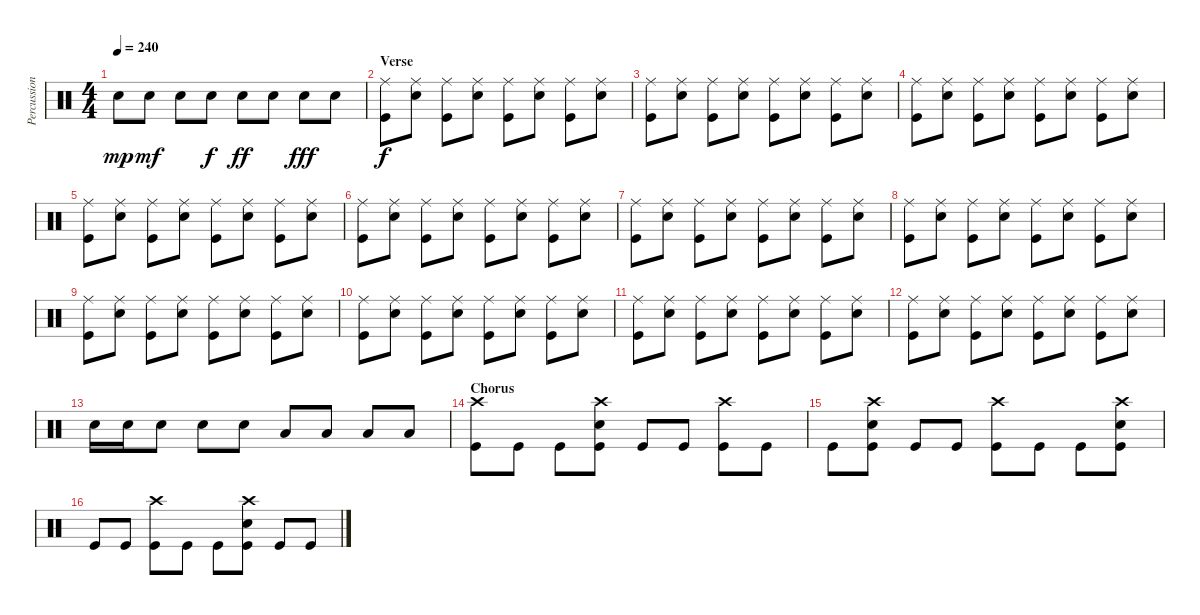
\track ("Percussion" "Percussion") {instrument percussion}
\staff {score}
\articulation defaults
\ts (4 4)
\tempo 240
\clef neutral
\ks c "Electric Snare (hit)".8{dy mp} "Electric Snare (hit)".8{dy mf} "Electric Snare (hit)".8 "Electric Snare (hit)".8{dy f} "Electric Snare (hit)".8{dy ff} "Electric Snare (hit)".8 "Electric Snare (hit)".8{dy fff} "Electric Snare (hit)".8
|
\section ("" "Verse")
("Ride (middle)" "Kick (hit)").8{dy f} ("Electric Snare (hit)" "Ride (middle)").8 ("Ride (middle)" "Kick (hit)").8 ("Electric Snare (hit)" "Ride (middle)").8 ("Ride (middle)" "Kick (hit)").8 ("Electric Snare (hit)" "Ride (middle)").8 ("Ride (middle)" "Kick (hit)").8 ("Electric Snare (hit)" "Ride (middle)").8 |
("Ride (middle)" "Kick (hit)").8 ("Electric Snare (hit)" "Ride (middle)").8 ("Ride (middle)" "Kick (hit)").8 ("Electric Snare (hit)" "Ride (middle)").8 ("Ride (middle)" "Kick (hit)").8 ("Electric Snare (hit)" "Ride (middle)").8 ("Ride (middle)" "Kick (hit)").8 ("Electric Snare (hit)" "Ride (middle)").8 |
("Ride (middle)" "Kick (hit)").8 ("Electric Snare (hit)" "Ride (middle)").8 ("Ride (middle)" "Kick (hit)").8 ("Electric Snare (hit)" "Ride (middle)").8 ("Ride (middle)" "Kick (hit)").8 ("Electric Snare (hit)" "Ride (middle)").8 ("Ride (middle)" "Kick (hit)").8 ("Electric Snare (hit)" "Ride (middle)").8 |
("Ride (middle)" "Kick (hit)").8 ("Electric Snare (hit)" "Ride (middle)").8 ("Ride (middle)" "Kick (hit)").8 ("Electric Snare (hit)" "Ride (middle)").8 ("Ride (middle)" "Kick (hit)").8 ("Electric Snare (hit)" "Ride (middle)").8 ("Ride (middle)" "Kick (hit)").8 ("Electric Snare (hit)" "Ride (middle)").8 |
("Ride (middle)" "Kick (hit)").8 ("Electric Snare (hit)" "Ride (middle)").8 ("Ride (middle)" "Kick (hit)").8 ("Electric Snare (hit)" "Ride (middle)").8 ("Ride (middle)" "Kick (hit)").8 ("Electric Snare (hit)" "Ride (middle)").8 ("Ride (middle)" "Kick (hit)").8 ("Electric Snare (hit)" "Ride (middle)").8 |
("Ride (middle)" "Kick (hit)").8 ("Electric Snare (hit)" "Ride (middle)").8 ("Ride (middle)" "Kick (hit)").8 ("Electric Snare (hit)" "Ride (middle)").8 ("Ride (middle)" "Kick (hit)").8 ("Electric Snare (hit)" "Ride (middle)").8 ("Ride (middle)" "Kick (hit)").8 ("Electric Snare (hit)" "Ride (middle)").8 |
("Ride (middle)" "Kick (hit)").8 ("Electric Snare (hit)" "Ride (middle)").8 ("Ride (middle)" "Kick (hit)").8 ("Electric Snare (hit)" "Ride (middle)").8 ("Ride (middle)" "Kick (hit)").8 ("Electric Snare (hit)" "Ride (middle)").8 ("Ride (middle)" "Kick (hit)").8 ("Electric Snare (hit)" "Ride (middle)").8 |
("Ride (middle)" "Kick (hit)").8 ("Electric Snare (hit)" "Ride (middle)").8 ("Ride (middle)" "Kick (hit)").8 ("Electric Snare (hit)" "Ride (middle)").8 ("Ride (middle)" "Kick (hit)").8 ("Electric Snare (hit)" "Ride (middle)").8 ("Ride (middle)" "Kick (hit)").8 ("Electric Snare (hit)" "Ride (middle)").8 |
("Ride (middle)" "Kick (hit)").8 ("Electric Snare (hit)" "Ride (middle)").8 ("Ride (middle)" "Kick (hit)").8 ("Electric Snare (hit)" "Ride (middle)").8 ("Ride (middle)" "Kick (hit)").8 ("Electric Snare (hit)" "Ride (middle)").8 ("Ride (middle)" "Kick (hit)").8 ("Electric Snare (hit)" "Ride (middle)").8 |
("Ride (middle)" "Kick (hit)").8 ("Electric Snare (hit)" "Ride (middle)").8 ("Ride (middle)" "Kick (hit)").8 ("Electric Snare (hit)" "Ride (middle)").8 ("Ride (middle)" "Kick (hit)").8 ("Electric Snare (hit)" "Ride (middle)").8 ("Ride (middle)" "Kick (hit)").8 ("Electric Snare (hit)" "Ride (middle)").8 |
("Ride (middle)" "Kick (hit)").8 ("Electric Snare (hit)" "Ride (middle)").8 ("Ride (middle)" "Kick (hit)").8 ("Electric Snare (hit)" "Ride (middle)").8 ("Ride (middle)" "Kick (hit)").8 ("Electric Snare (hit)" "Ride (middle)").8 ("Ride (middle)" "Kick (hit)").8 ("Electric Snare (hit)" "Ride (middle)").8 |
"Electric Snare (hit)".16 "Electric Snare (hit)".16 "Electric Snare (hit)".8 "Electric Snare (hit)".8 "Electric Snare (hit)".8 "Low Tom (hit)".8 "Low Tom (hit)".8 "Low Tom (hit)".8 "Low Floor Tom (hit)".8 |
\section ("" "Chorus")
("Crash high (hit)" "Kick (hit)").8 "Kick (hit)".8 "Kick (hit)".8 ("Electric Snare (hit)" "Crash high (hit)" "Kick (hit)").8 "Kick (hit)".8 "Kick (hit)".8 ("Crash high (hit)" "Kick (hit)").8 "Kick (hit)".8 |
"Kick (hit)".8 ("Electric Snare (hit)" "Crash high (hit)" "Kick (hit)").8 "Kick (hit)".8 "Kick (hit)".8 ("Crash high (hit)" "Kick (hit)").8 "Kick (hit)".8 "Kick (hit)".8 ("Electric Snare (hit)" "Crash high (hit)" "Kick (hit)").8 |
"Kick (hit)".8 "Kick (hit)".8 ("Crash high (hit)" "Kick (hit)").8 "Kick (hit)".8 "Kick (hit)".8 ("Electric Snare (hit)" "Crash high (hit)" "Kick (hit)").8 "Kick (hit)".8 "Kick (hit)".8
